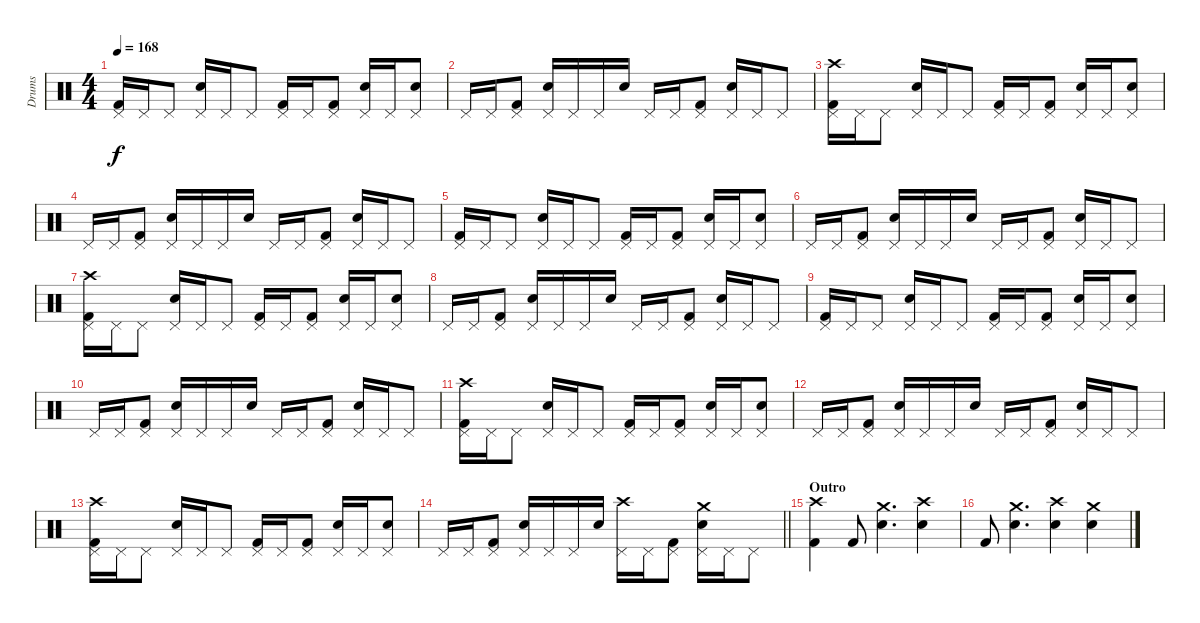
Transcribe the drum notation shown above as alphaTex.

\track ("Drums" "Drums") {instrument percussion}
\staff {score}
\articulation defaults
\ts (4 4)
\tempo 168
\clef neutral
\ks c
("Pedal Hi-Hat (hit)" "Kick (hit) 2").16{dy f} "Pedal Hi-Hat (hit)".16 "Pedal Hi-Hat (hit)".8 ("Pedal Hi-Hat (hit)" "Snare (hit) 2").16 "Pedal Hi-Hat (hit)".16 "Pedal Hi-Hat (hit)".8 ("Pedal Hi-Hat (hit)" "Kick (hit) 2").16 "Pedal Hi-Hat (hit)".16 ("Pedal Hi-Hat (hit)" "Kick (hit) 2").8 ("Pedal Hi-Hat (hit)" "Snare (hit) 2").16 "Pedal Hi-Hat (hit)".16 ("Pedal Hi-Hat (hit)" "Snare (hit) 2").8 |
"Pedal Hi-Hat (hit)".16 "Pedal Hi-Hat (hit)".16 ("Pedal Hi-Hat (hit)" "Kick (hit) 2").8 ("Pedal Hi-Hat (hit)" "Snare (hit) 2").16 "Pedal Hi-Hat (hit)".16 "Pedal Hi-Hat (hit)".16 "Snare (hit) 2".16 "Pedal Hi-Hat (hit)".16 "Pedal Hi-Hat (hit)".16 ("Pedal Hi-Hat (hit)" "Kick (hit) 2").8 ("Pedal Hi-Hat (hit)" "Snare (hit) 2").16 "Pedal Hi-Hat (hit)".16 "Pedal Hi-Hat (hit)".8 |
("Crash high (hit)" "Pedal Hi-Hat (hit)" "Kick (hit) 2").16 "Pedal Hi-Hat (hit)".16 "Pedal Hi-Hat (hit)".8 ("Pedal Hi-Hat (hit)" "Snare (hit) 2").16 "Pedal Hi-Hat (hit)".16 "Pedal Hi-Hat (hit)".8 ("Pedal Hi-Hat (hit)" "Kick (hit) 2").16 "Pedal Hi-Hat (hit)".16 ("Pedal Hi-Hat (hit)" "Kick (hit) 2").8 ("Pedal Hi-Hat (hit)" "Snare (hit) 2").16 "Pedal Hi-Hat (hit)".16 ("Pedal Hi-Hat (hit)" "Snare (hit) 2").8 |
"Pedal Hi-Hat (hit)".16 "Pedal Hi-Hat (hit)".16 ("Pedal Hi-Hat (hit)" "Kick (hit) 2").8 ("Pedal Hi-Hat (hit)" "Snare (hit) 2").16 "Pedal Hi-Hat (hit)".16 "Pedal Hi-Hat (hit)".16 "Snare (hit) 2".16 "Pedal Hi-Hat (hit)".16 "Pedal Hi-Hat (hit)".16 ("Pedal Hi-Hat (hit)" "Kick (hit) 2").8 ("Pedal Hi-Hat (hit)" "Snare (hit) 2").16 "Pedal Hi-Hat (hit)".16 "Pedal Hi-Hat (hit)".8 |
("Pedal Hi-Hat (hit)" "Kick (hit) 2").16 "Pedal Hi-Hat (hit)".16 "Pedal Hi-Hat (hit)".8 ("Pedal Hi-Hat (hit)" "Snare (hit) 2").16 "Pedal Hi-Hat (hit)".16 "Pedal Hi-Hat (hit)".8 ("Pedal Hi-Hat (hit)" "Kick (hit) 2").16 "Pedal Hi-Hat (hit)".16 ("Pedal Hi-Hat (hit)" "Kick (hit) 2").8 ("Pedal Hi-Hat (hit)" "Snare (hit) 2").16 "Pedal Hi-Hat (hit)".16 ("Pedal Hi-Hat (hit)" "Snare (hit) 2").8 |
"Pedal Hi-Hat (hit)".16 "Pedal Hi-Hat (hit)".16 ("Pedal Hi-Hat (hit)" "Kick (hit) 2").8 ("Pedal Hi-Hat (hit)" "Snare (hit) 2").16 "Pedal Hi-Hat (hit)".16 "Pedal Hi-Hat (hit)".16 "Snare (hit) 2".16 "Pedal Hi-Hat (hit)".16 "Pedal Hi-Hat (hit)".16 ("Pedal Hi-Hat (hit)" "Kick (hit) 2").8 ("Pedal Hi-Hat (hit)" "Snare (hit) 2").16 "Pedal Hi-Hat (hit)".16 "Pedal Hi-Hat (hit)".8 |
("Crash high (hit)" "Pedal Hi-Hat (hit)" "Kick (hit) 2").16 "Pedal Hi-Hat (hit)".16 "Pedal Hi-Hat (hit)".8 ("Pedal Hi-Hat (hit)" "Snare (hit) 2").16 "Pedal Hi-Hat (hit)".16 "Pedal Hi-Hat (hit)".8 ("Pedal Hi-Hat (hit)" "Kick (hit) 2").16 "Pedal Hi-Hat (hit)".16 ("Pedal Hi-Hat (hit)" "Kick (hit) 2").8 ("Pedal Hi-Hat (hit)" "Snare (hit) 2").16 "Pedal Hi-Hat (hit)".16 ("Pedal Hi-Hat (hit)" "Snare (hit) 2").8 |
"Pedal Hi-Hat (hit)".16 "Pedal Hi-Hat (hit)".16 ("Pedal Hi-Hat (hit)" "Kick (hit) 2").8 ("Pedal Hi-Hat (hit)" "Snare (hit) 2").16 "Pedal Hi-Hat (hit)".16 "Pedal Hi-Hat (hit)".16 "Snare (hit) 2".16 "Pedal Hi-Hat (hit)".16 "Pedal Hi-Hat (hit)".16 ("Pedal Hi-Hat (hit)" "Kick (hit) 2").8 ("Pedal Hi-Hat (hit)" "Snare (hit) 2").16 "Pedal Hi-Hat (hit)".16 "Pedal Hi-Hat (hit)".8 |
("Pedal Hi-Hat (hit)" "Kick (hit) 2").16 "Pedal Hi-Hat (hit)".16 "Pedal Hi-Hat (hit)".8 ("Pedal Hi-Hat (hit)" "Snare (hit) 2").16 "Pedal Hi-Hat (hit)".16 "Pedal Hi-Hat (hit)".8 ("Pedal Hi-Hat (hit)" "Kick (hit) 2").16 "Pedal Hi-Hat (hit)".16 ("Pedal Hi-Hat (hit)" "Kick (hit) 2").8 ("Pedal Hi-Hat (hit)" "Snare (hit) 2").16 "Pedal Hi-Hat (hit)".16 ("Pedal Hi-Hat (hit)" "Snare (hit) 2").8 |
"Pedal Hi-Hat (hit)".16 "Pedal Hi-Hat (hit)".16 ("Pedal Hi-Hat (hit)" "Kick (hit) 2").8 ("Pedal Hi-Hat (hit)" "Snare (hit) 2").16 "Pedal Hi-Hat (hit)".16 "Pedal Hi-Hat (hit)".16 "Snare (hit) 2".16 "Pedal Hi-Hat (hit)".16 "Pedal Hi-Hat (hit)".16 ("Pedal Hi-Hat (hit)" "Kick (hit) 2").8 ("Pedal Hi-Hat (hit)" "Snare (hit) 2").16 "Pedal Hi-Hat (hit)".16 "Pedal Hi-Hat (hit)".8 |
("Crash high (hit)" "Pedal Hi-Hat (hit)" "Kick (hit) 2").16 "Pedal Hi-Hat (hit)".16 "Pedal Hi-Hat (hit)".8 ("Pedal Hi-Hat (hit)" "Snare (hit) 2").16 "Pedal Hi-Hat (hit)".16 "Pedal Hi-Hat (hit)".8 ("Pedal Hi-Hat (hit)" "Kick (hit) 2").16 "Pedal Hi-Hat (hit)".16 ("Pedal Hi-Hat (hit)" "Kick (hit) 2").8 ("Pedal Hi-Hat (hit)" "Snare (hit) 2").16 "Pedal Hi-Hat (hit)".16 ("Pedal Hi-Hat (hit)" "Snare (hit) 2").8 |
"Pedal Hi-Hat (hit)".16 "Pedal Hi-Hat (hit)".16 ("Pedal Hi-Hat (hit)" "Kick (hit) 2").8 ("Pedal Hi-Hat (hit)" "Snare (hit) 2").16 "Pedal Hi-Hat (hit)".16 "Pedal Hi-Hat (hit)".16 "Snare (hit) 2".16 "Pedal Hi-Hat (hit)".16 "Pedal Hi-Hat (hit)".16 ("Pedal Hi-Hat (hit)" "Kick (hit) 2").8 ("Pedal Hi-Hat (hit)" "Snare (hit) 2").16 "Pedal Hi-Hat (hit)".16 "Pedal Hi-Hat (hit)".8 |
("Crash high (hit)" "Pedal Hi-Hat (hit)" "Kick (hit) 2").16 "Pedal Hi-Hat (hit)".16 "Pedal Hi-Hat (hit)".8 ("Pedal Hi-Hat (hit)" "Snare (hit) 2").16 "Pedal Hi-Hat (hit)".16 "Pedal Hi-Hat (hit)".8 ("Pedal Hi-Hat (hit)" "Kick (hit) 2").16 "Pedal Hi-Hat (hit)".16 ("Pedal Hi-Hat (hit)" "Kick (hit) 2").8 ("Pedal Hi-Hat (hit)" "Snare (hit) 2").16 "Pedal Hi-Hat (hit)".16 ("Pedal Hi-Hat (hit)" "Snare (hit) 2").8 |
\barLineRight lightlight "Pedal Hi-Hat (hit)".16 "Pedal Hi-Hat (hit)".16
("Pedal Hi-Hat (hit)" "Kick (hit) 2").8 ("Pedal Hi-Hat (hit)" "Snare (hit) 2").16 "Pedal Hi-Hat (hit)".16 "Pedal Hi-Hat (hit)".16 "Snare (hit) 2".16 ("Crash high (hit)" "Pedal Hi-Hat (hit)").16 "Pedal Hi-Hat (hit)".16 ("Pedal Hi-Hat (hit)" "Kick (hit) 2").8 ("Crash medium (hit)" "Pedal Hi-Hat (hit)" "Snare (hit) 2").16 "Pedal Hi-Hat (hit)".16 "Pedal Hi-Hat (hit)".8 |
\section ("" "Outro")
("Crash high (hit)" "Kick (hit) 2").4 "Kick (hit) 2".8 ("Crash medium (hit)" "Snare (hit) 2").4{d} ("Crash high (hit)" "Snare (hit) 2").4 |
"Kick (hit) 2".8 ("Crash medium (hit)" "Snare (hit) 2").4{d} ("Crash high (hit)" "Snare (hit) 2").4 ("Crash medium (hit)" "Snare (hit) 2").4
